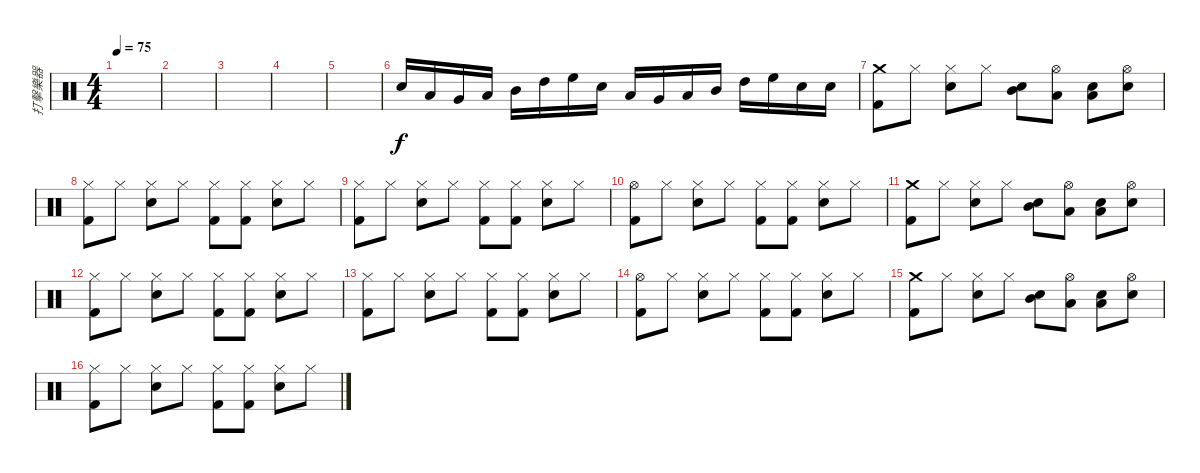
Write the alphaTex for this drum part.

\track ("打擊樂器" "打擊樂器") {instrument percussion}
\staff {score}
\articulation defaults
\ts (4 4)
\tempo 75
\clef neutral
\ks c
|
|
|
|
|
"Electric Snare (hit)".16 "Low Floor Tom (hit)".16 "Very Low Tom (hit)".16 "Low Tom (hit)".16 "Mid Tom (hit)".16 "High Tom (hit)".16 "High Floor Tom (hit)".16 "Electric Snare (hit)".16 "Low Floor Tom (hit)".16 "Very Low Tom (hit)".16 "Low Tom (hit)".16 "Mid Tom (hit)".16 "High Tom (hit)".16 "High Floor Tom (hit)".16 "Snare (hit) 2".16 "Snare (hit) 2".16 |
("Crash medium (hit)" "Kick (hit) 2").8 "Hi-Hat (closed)".8 ("Hi-Hat (closed)" "Electric Snare (hit)").8 "Hi-Hat (closed)".8 ("Electric Snare (hit)" "Mid Tom (hit)").8 ("Hi-Hat (open)" "Low Tom (hit)").8 ("Electric Snare (hit)" "Low Tom (hit)").8 ("Electric Snare (hit)" "Hi-Hat (open)").8 |
("Hi-Hat (closed)" "Kick (hit) 2").8 "Hi-Hat (closed)".8 ("Hi-Hat (closed)" "Electric Snare (hit)").8 "Hi-Hat (closed)".8 ("Hi-Hat (closed)" "Kick (hit) 2").8 ("Hi-Hat (closed)" "Kick (hit) 2").8 ("Hi-Hat (closed)" "Electric Snare (hit)").8 "Hi-Hat (closed)".8 |
("Hi-Hat (closed)" "Kick (hit) 2").8 "Hi-Hat (closed)".8 ("Hi-Hat (closed)" "Electric Snare (hit)").8 "Hi-Hat (closed)".8 ("Hi-Hat (closed)" "Kick (hit) 2").8 ("Hi-Hat (closed)" "Kick (hit) 2").8 ("Hi-Hat (closed)" "Electric Snare (hit)").8 "Hi-Hat (closed)".8 |
("Hi-Hat (open)" "Kick (hit) 2").8 "Hi-Hat (closed)".8 ("Hi-Hat (closed)" "Electric Snare (hit)").8 "Hi-Hat (closed)".8 ("Hi-Hat (closed)" "Kick (hit) 2").8 ("Hi-Hat (closed)" "Kick (hit) 2").8 ("Hi-Hat (closed)" "Electric Snare (hit)").8 "Hi-Hat (closed)".8 |
("Crash medium (hit)" "Kick (hit) 2").8 "Hi-Hat (closed)".8 ("Hi-Hat (closed)" "Electric Snare (hit)").8 "Hi-Hat (closed)".8 ("Electric Snare (hit)" "Mid Tom (hit)").8 ("Hi-Hat (open)" "Low Tom (hit)").8 ("Electric Snare (hit)" "Low Tom (hit)").8 ("Electric Snare (hit)" "Hi-Hat (open)").8 |
("Hi-Hat (closed)" "Kick (hit) 2").8 "Hi-Hat (closed)".8 ("Hi-Hat (closed)" "Electric Snare (hit)").8 "Hi-Hat (closed)".8 ("Hi-Hat (closed)" "Kick (hit) 2").8 ("Hi-Hat (closed)" "Kick (hit) 2").8 ("Hi-Hat (closed)" "Electric Snare (hit)").8 "Hi-Hat (closed)".8 |
("Hi-Hat (closed)" "Kick (hit) 2").8 "Hi-Hat (closed)".8 ("Hi-Hat (closed)" "Electric Snare (hit)").8 "Hi-Hat (closed)".8 ("Hi-Hat (closed)" "Kick (hit) 2").8 ("Hi-Hat (closed)" "Kick (hit) 2").8 ("Hi-Hat (closed)" "Electric Snare (hit)").8 "Hi-Hat (closed)".8 |
("Hi-Hat (open)" "Kick (hit) 2").8 "Hi-Hat (closed)".8 ("Hi-Hat (closed)" "Electric Snare (hit)").8 "Hi-Hat (closed)".8 ("Hi-Hat (closed)" "Kick (hit) 2").8 ("Hi-Hat (closed)" "Kick (hit) 2").8 ("Hi-Hat (closed)" "Electric Snare (hit)").8 "Hi-Hat (closed)".8 |
("Crash medium (hit)" "Kick (hit) 2").8 "Hi-Hat (closed)".8 ("Hi-Hat (closed)" "Electric Snare (hit)").8 "Hi-Hat (closed)".8 ("Electric Snare (hit)" "Mid Tom (hit)").8 ("Hi-Hat (open)" "Low Tom (hit)").8 ("Electric Snare (hit)" "Low Tom (hit)").8 ("Electric Snare (hit)" "Hi-Hat (open)").8 |
("Hi-Hat (closed)" "Kick (hit) 2").8 "Hi-Hat (closed)".8 ("Hi-Hat (closed)" "Electric Snare (hit)").8 "Hi-Hat (closed)".8 ("Hi-Hat (closed)" "Kick (hit) 2").8 ("Hi-Hat (closed)" "Kick (hit) 2").8 ("Hi-Hat (closed)" "Electric Snare (hit)").8 "Hi-Hat (closed)".8
